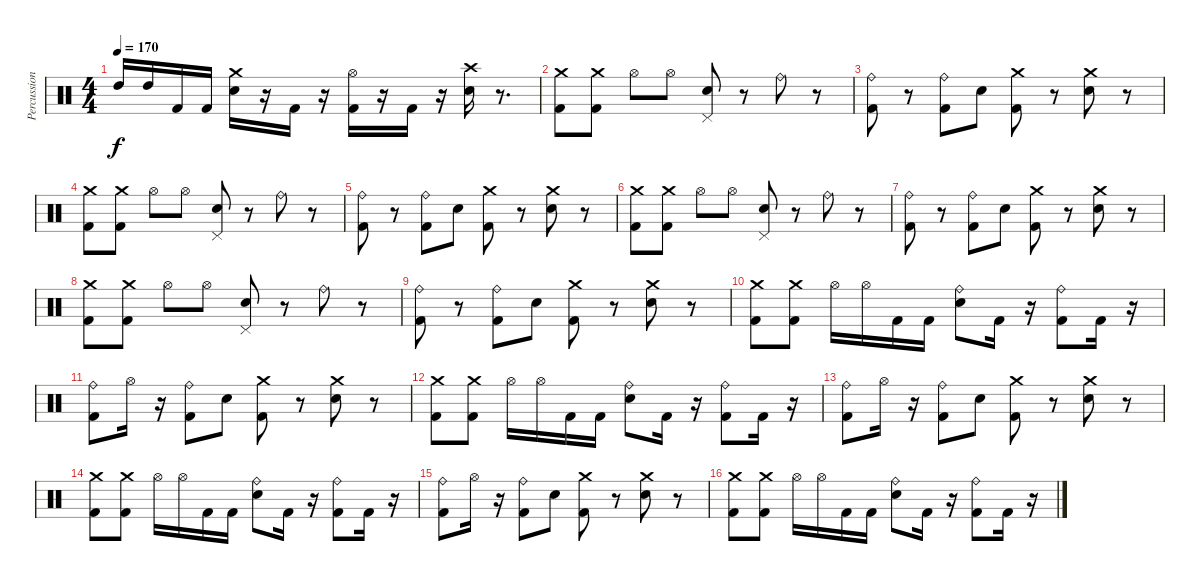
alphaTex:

\track ("Percussion" "Percussion") {instrument percussion}
\staff {score}
\articulation defaults
\ts (4 4)
\tempo 170
\clef neutral
\ks c "High Tom (hit)".16{dy f} "High Tom (hit)".16 "Kick (hit) 2".16 "Kick (hit) 2".16
("Crash medium (hit)" "Electric Snare (hit)").16 r.16 "Kick (hit) 2".16 r.16 ("Kick (hit) 2" "Hi-Hat (open)").16 r.16 "Kick (hit) 2".16 r.16 ("Electric Snare (hit)" "Crash high (hit)").16 r.8{d} |
("Crash medium (hit)" "Kick (hit) 2").8 ("Kick (hit) 2" "Crash medium (hit)").8 "Hi-Hat (open)".8 "Hi-Hat (open)".8 ("Pedal Hi-Hat (hit)" "Electric Snare (hit)").8 r.8 "Ride (bell)".8 r.8 |
("Ride (bell)" "Kick (hit) 2").8 r.8 ("Ride (bell)" "Kick (hit) 2").8 "Electric Snare (hit)".8 ("Crash medium (hit)" "Kick (hit) 2").8 r.8 ("Crash medium (hit)" "Electric Snare (hit)").8 r.8 |
("Crash medium (hit)" "Kick (hit) 2").8 ("Kick (hit) 2" "Crash medium (hit)").8 "Hi-Hat (open)".8 "Hi-Hat (open)".8 ("Pedal Hi-Hat (hit)" "Electric Snare (hit)").8 r.8 "Ride (bell)".8 r.8 |
("Ride (bell)" "Kick (hit) 2").8 r.8 ("Ride (bell)" "Kick (hit) 2").8 "Electric Snare (hit)".8 ("Crash medium (hit)" "Kick (hit) 2").8 r.8 ("Crash medium (hit)" "Electric Snare (hit)").8 r.8 |
("Crash medium (hit)" "Kick (hit) 2").8 ("Kick (hit) 2" "Crash medium (hit)").8 "Hi-Hat (open)".8 "Hi-Hat (open)".8 ("Pedal Hi-Hat (hit)" "Electric Snare (hit)").8 r.8 "Ride (bell)".8 r.8 |
("Ride (bell)" "Kick (hit) 2").8 r.8 ("Ride (bell)" "Kick (hit) 2").8 "Electric Snare (hit)".8 ("Crash medium (hit)" "Kick (hit) 2").8 r.8 ("Crash medium (hit)" "Electric Snare (hit)").8 r.8 |
("Crash medium (hit)" "Kick (hit) 2").8 ("Kick (hit) 2" "Crash medium (hit)").8 "Hi-Hat (open)".8 "Hi-Hat (open)".8 ("Pedal Hi-Hat (hit)" "Electric Snare (hit)").8 r.8 "Ride (bell)".8 r.8 |
("Ride (bell)" "Kick (hit) 2").8 r.8 ("Ride (bell)" "Kick (hit) 2").8 "Electric Snare (hit)".8 ("Crash medium (hit)" "Kick (hit) 2").8 r.8 ("Crash medium (hit)" "Electric Snare (hit)").8 r.8 |
("Crash medium (hit)" "Kick (hit) 2").8 ("Kick (hit) 2" "Crash medium (hit)").8 "Hi-Hat (open)".16 "Hi-Hat (open)".16 "Kick (hit) 2".16 "Kick (hit) 2".16 ("Ride (bell)" "Electric Snare (hit)").8 "Kick (hit) 2".16 r.16 ("Kick (hit) 2" "Ride (bell)").8 "Kick (hit) 2".16 r.16 |
("Ride (bell)" "Kick (hit) 2").8 "Hi-Hat (open)".16 r.16 ("Ride (bell)" "Kick (hit) 2").8 "Electric Snare (hit)".8 ("Crash medium (hit)" "Kick (hit) 2").8 r.8 ("Crash medium (hit)" "Electric Snare (hit)").8 r.8 |
("Crash medium (hit)" "Kick (hit) 2").8 ("Kick (hit) 2" "Crash medium (hit)").8 "Hi-Hat (open)".16 "Hi-Hat (open)".16 "Kick (hit) 2".16 "Kick (hit) 2".16 ("Ride (bell)" "Electric Snare (hit)").8 "Kick (hit) 2".16 r.16 ("Kick (hit) 2" "Ride (bell)").8 "Kick (hit) 2".16 r.16 |
("Ride (bell)" "Kick (hit) 2").8 "Hi-Hat (open)".16 r.16 ("Ride (bell)" "Kick (hit) 2").8 "Electric Snare (hit)".8 ("Crash medium (hit)" "Kick (hit) 2").8 r.8 ("Crash medium (hit)" "Electric Snare (hit)").8 r.8 |
("Crash medium (hit)" "Kick (hit) 2").8 ("Kick (hit) 2" "Crash medium (hit)").8 "Hi-Hat (open)".16 "Hi-Hat (open)".16 "Kick (hit) 2".16 "Kick (hit) 2".16 ("Ride (bell)" "Electric Snare (hit)").8 "Kick (hit) 2".16 r.16 ("Kick (hit) 2" "Ride (bell)").8 "Kick (hit) 2".16 r.16 |
("Ride (bell)" "Kick (hit) 2").8 "Hi-Hat (open)".16 r.16 ("Ride (bell)" "Kick (hit) 2").8 "Electric Snare (hit)".8 ("Crash medium (hit)" "Kick (hit) 2").8 r.8 ("Crash medium (hit)" "Electric Snare (hit)").8 r.8 |
("Crash medium (hit)" "Kick (hit) 2").8 ("Kick (hit) 2" "Crash medium (hit)").8 "Hi-Hat (open)".16 "Hi-Hat (open)".16 "Kick (hit) 2".16 "Kick (hit) 2".16 ("Ride (bell)" "Electric Snare (hit)").8 "Kick (hit) 2".16 r.16 ("Kick (hit) 2" "Ride (bell)").8 "Kick (hit) 2".16 r.16
